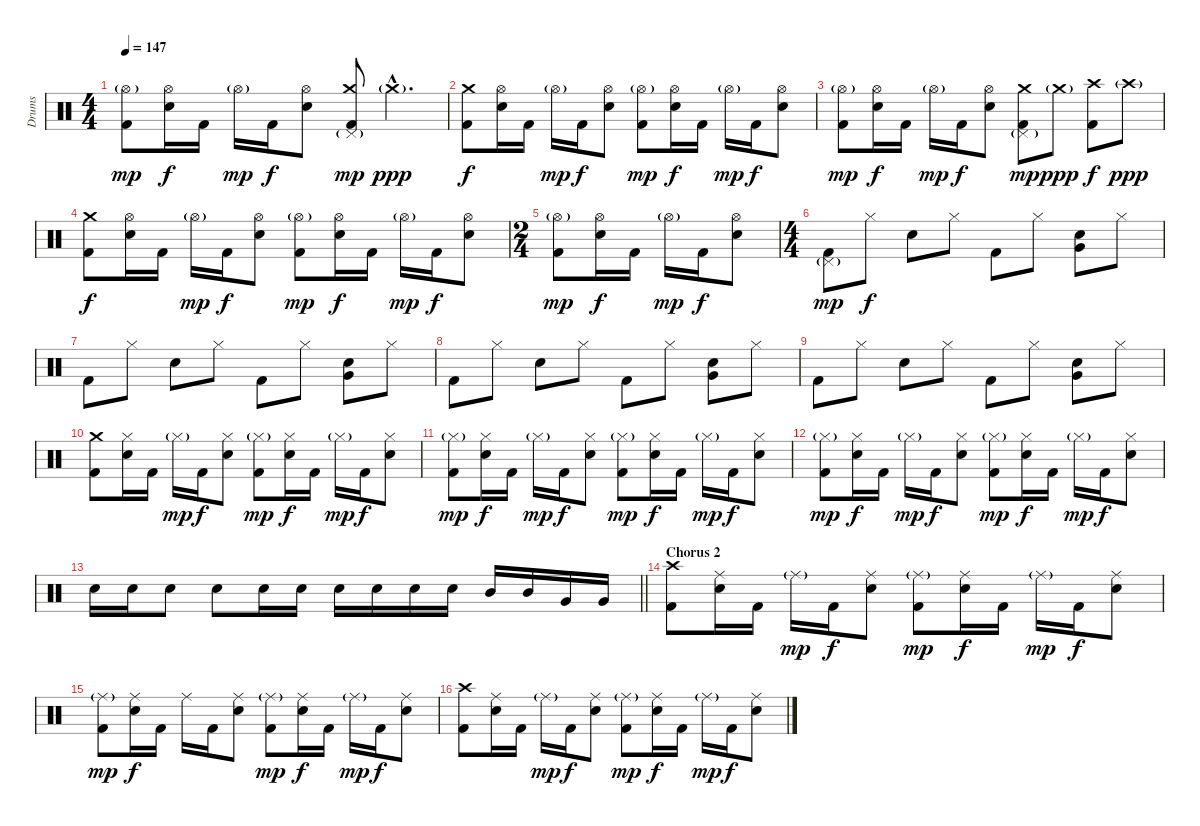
\track ("Drums" "Drums") {instrument percussion}
\staff {score}
\articulation defaults
\ts (4 4)
\tempo 147
\clef neutral
\ks aminor
("Hi-Hat (open)"{g} "Kick (hit) 2").8{dy mp} ("Hi-Hat (open)" "Electric Snare (hit)").16{dy f} "Kick (hit) 2".16 "Hi-Hat (open)"{g}.16{dy mp} "Kick (hit) 2".16{dy f} ("Hi-Hat (open)" "Electric Snare (hit)").8 ("Crash medium (hit)" "Pedal Hi-Hat (hit)"{g} "Kick (hit) 2").8{dy mp} "Crash medium (hit)"{g hac}.4{d dy ppp} |
("Crash medium (hit)" "Kick (hit) 2").8{dy f} ("Hi-Hat (open)" "Electric Snare (hit)").16 "Kick (hit) 2".16 "Hi-Hat (open)"{g}.16{dy mp} "Kick (hit) 2".16{dy f} ("Hi-Hat (open)" "Electric Snare (hit)").8 ("Hi-Hat (open)"{g} "Kick (hit) 2").8{dy mp} ("Hi-Hat (open)" "Electric Snare (hit)").16{dy f} "Kick (hit) 2".16 "Hi-Hat (open)"{g}.16{dy mp} "Kick (hit) 2".16{dy f} ("Hi-Hat (open)" "Electric Snare (hit)").8 |
("Hi-Hat (open)"{g} "Kick (hit) 2").8{dy mp} ("Hi-Hat (open)" "Electric Snare (hit)").16{dy f} "Kick (hit) 2".16 "Hi-Hat (open)"{g}.16{dy mp} "Kick (hit) 2".16{dy f} ("Hi-Hat (open)" "Electric Snare (hit)").8 ("Crash medium (hit)" "Pedal Hi-Hat (hit)"{g} "Kick (hit) 2").8{dy mp} "Crash medium (hit)"{g}.8{dy ppp} ("Crash high (hit)" "Kick (hit) 2").8{dy f} "Crash high (hit)"{g}.8{dy ppp} |
("Crash medium (hit)" "Kick (hit) 2").8{dy f} ("Hi-Hat (open)" "Electric Snare (hit)").16 "Kick (hit) 2".16 "Hi-Hat (open)"{g}.16{dy mp} "Kick (hit) 2".16{dy f} ("Hi-Hat (open)" "Electric Snare (hit)").8 ("Hi-Hat (open)"{g} "Kick (hit) 2").8{dy mp} ("Hi-Hat (open)" "Electric Snare (hit)").16{dy f} "Kick (hit) 2".16 "Hi-Hat (open)"{g}.16{dy mp} "Kick (hit) 2".16{dy f} ("Hi-Hat (open)" "Electric Snare (hit)").8 |
\ts (2 4)
("Hi-Hat (open)"{g} "Kick (hit) 2").8{dy mp} ("Hi-Hat (open)" "Electric Snare (hit)").16{dy f} "Kick (hit) 2".16 "Hi-Hat (open)"{g}.16{dy mp} "Kick (hit) 2".16{dy f} ("Hi-Hat (open)" "Electric Snare (hit)").8 |
\ts (4 4)
("Pedal Hi-Hat (hit)"{g} "Kick (hit) 2").8{dy mp} "Hi-Hat (closed)".8{dy f} "Electric Snare (hit)".8 "Hi-Hat (closed)".8 "Kick (hit) 2".8 "Hi-Hat (closed)".8 ("Electric Snare (hit)" "Very Low Tom (hit)").8 "Hi-Hat (closed)".8 |
"Kick (hit) 2".8 "Hi-Hat (closed)".8 "Electric Snare (hit)".8 "Hi-Hat (closed)".8 "Kick (hit) 2".8 "Hi-Hat (closed)".8 ("Electric Snare (hit)" "Very Low Tom (hit)").8 "Hi-Hat (closed)".8 |
"Kick (hit) 2".8 "Hi-Hat (closed)".8 "Electric Snare (hit)".8 "Hi-Hat (closed)".8 "Kick (hit) 2".8 "Hi-Hat (closed)".8 ("Electric Snare (hit)" "Very Low Tom (hit)").8 "Hi-Hat (closed)".8 |
"Kick (hit) 2".8 "Hi-Hat (closed)".8 "Electric Snare (hit)".8 "Hi-Hat (closed)".8 "Kick (hit) 2".8 "Hi-Hat (closed)".8 ("Electric Snare (hit)" "Very Low Tom (hit)").8 "Hi-Hat (closed)".8 |
("Crash medium (hit)" "Kick (hit) 2").8 ("Hi-Hat (closed)" "Electric Snare (hit)").16 "Kick (hit) 2".16 "Hi-Hat (closed)"{g}.16{dy mp} "Kick (hit) 2".16{dy f} ("Hi-Hat (closed)" "Electric Snare (hit)").8 ("Hi-Hat (closed)"{g} "Kick (hit) 2").8{dy mp} ("Hi-Hat (closed)" "Electric Snare (hit)").16{dy f} "Kick (hit) 2".16 "Hi-Hat (closed)"{g}.16{dy mp} "Kick (hit) 2".16{dy f} ("Hi-Hat (closed)" "Electric Snare (hit)").8 |
("Hi-Hat (closed)"{g} "Kick (hit) 2").8{dy mp} ("Hi-Hat (closed)" "Electric Snare (hit)").16{dy f} "Kick (hit) 2".16 "Hi-Hat (closed)"{g}.16{dy mp} "Kick (hit) 2".16{dy f} ("Hi-Hat (closed)" "Electric Snare (hit)").8 ("Hi-Hat (closed)"{g} "Kick (hit) 2").8{dy mp} ("Hi-Hat (closed)" "Electric Snare (hit)").16{dy f} "Kick (hit) 2".16 "Hi-Hat (closed)"{g}.16{dy mp} "Kick (hit) 2".16{dy f} ("Hi-Hat (closed)" "Electric Snare (hit)").8 |
("Hi-Hat (closed)"{g} "Kick (hit) 2").8{dy mp} ("Hi-Hat (closed)" "Electric Snare (hit)").16{dy f} "Kick (hit) 2".16 "Hi-Hat (closed)"{g}.16{dy mp} "Kick (hit) 2".16{dy f} ("Hi-Hat (closed)" "Electric Snare (hit)").8 ("Hi-Hat (closed)"{g} "Kick (hit) 2").8{dy mp} ("Hi-Hat (closed)" "Electric Snare (hit)").16{dy f} "Kick (hit) 2".16 "Hi-Hat (closed)"{g}.16{dy mp} "Kick (hit) 2".16{dy f} ("Hi-Hat (closed)" "Electric Snare (hit)").8 |
\barLineRight lightlight "Electric Snare (hit)".16 "Electric Snare (hit)".16 "Electric Snare (hit)".8 "Electric Snare (hit)".8 "Electric Snare (hit)".16 "Electric Snare (hit)".16 "Electric Snare (hit)".16 "Electric Snare (hit)".16 "Electric Snare (hit)".16 "Electric Snare (hit)".16 "Mid Tom (hit)".16 "Mid Tom (hit)".16 "Very Low Tom (hit)".16 "Very Low Tom (hit)".16
|
\section ("" "Chorus 2")
("Crash high (hit)" "Kick (hit) 2").8 ("Ride (middle)" "Electric Snare (hit)").16 "Kick (hit) 2".16 "Ride (middle)"{g}.16{dy mp} "Kick (hit) 2".16{dy f} ("Ride (middle)" "Electric Snare (hit)").8 ("Ride (middle)"{g} "Kick (hit) 2").8{dy mp} ("Ride (middle)" "Electric Snare (hit)").16{dy f} "Kick (hit) 2".16 "Ride (middle)"{g}.16{dy mp} "Kick (hit) 2".16{dy f} ("Ride (middle)" "Electric Snare (hit)").8 |
("Ride (middle)"{g} "Kick (hit) 2").8{dy mp} ("Ride (middle)" "Electric Snare (hit)").16{dy f} "Kick (hit) 2".16 "Ride (middle)".16 "Kick (hit) 2".16 ("Ride (middle)" "Electric Snare (hit)").8 ("Ride (middle)"{g} "Kick (hit) 2").8{dy mp} ("Ride (middle)" "Electric Snare (hit)").16{dy f} "Kick (hit) 2".16 "Ride (middle)"{g}.16{dy mp} "Kick (hit) 2".16{dy f} ("Ride (middle)" "Electric Snare (hit)").8 |
("Crash high (hit)" "Kick (hit) 2").8 ("Ride (middle)" "Electric Snare (hit)").16 "Kick (hit) 2".16 "Ride (middle)"{g}.16{dy mp} "Kick (hit) 2".16{dy f} ("Ride (middle)" "Electric Snare (hit)").8 ("Ride (middle)"{g} "Kick (hit) 2").8{dy mp} ("Ride (middle)" "Electric Snare (hit)").16{dy f} "Kick (hit) 2".16 "Ride (middle)"{g}.16{dy mp} "Kick (hit) 2".16{dy f} ("Ride (middle)" "Electric Snare (hit)").8
